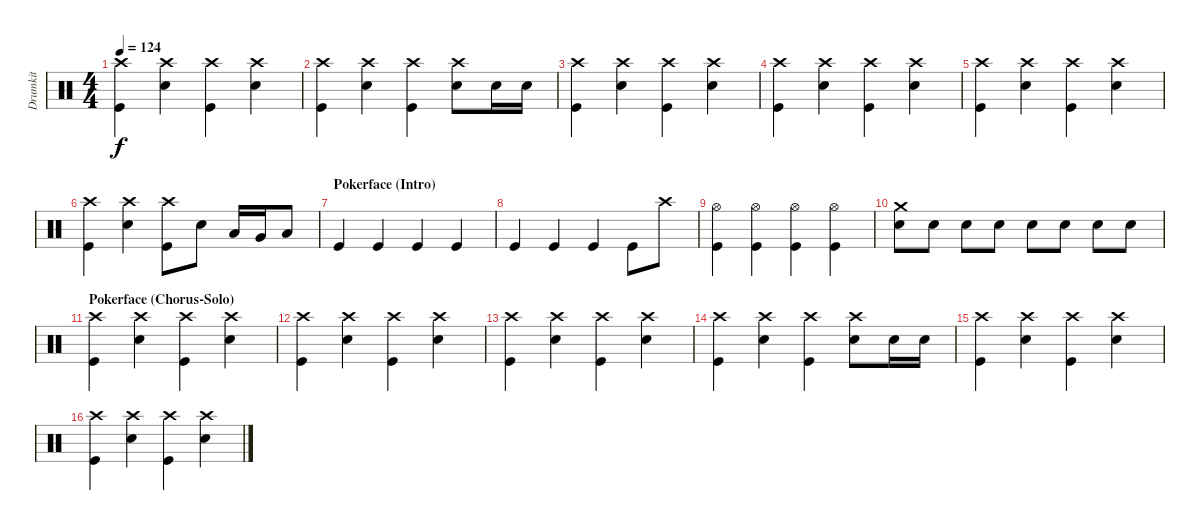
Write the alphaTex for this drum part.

\track ("Drumkit" "Drumkit") {instrument percussion}
\staff {score}
\articulation defaults
\ts (4 4)
\tempo 124
\clef neutral
\ks c
("Kick (hit)" "Crash high (hit)").4{dy f} ("Snare (hit) 2" "Crash high (hit)").4 ("Kick (hit)" "Crash high (hit)").4 ("Snare (hit) 2" "Crash high (hit)").4 |
("Kick (hit)" "Crash high (hit)").4 ("Snare (hit) 2" "Crash high (hit)").4 ("Kick (hit)" "Crash high (hit)").4 ("Snare (hit) 2" "Crash high (hit)").8 "Snare (hit) 2".16 "Snare (hit) 2".16 |
("Kick (hit)" "Crash high (hit)").4 ("Snare (hit) 2" "Crash high (hit)").4 ("Kick (hit)" "Crash high (hit)").4 ("Snare (hit) 2" "Crash high (hit)").4 |
("Kick (hit)" "Crash high (hit)").4 ("Snare (hit) 2" "Crash high (hit)").4 ("Kick (hit)" "Crash high (hit)").4 ("Snare (hit) 2" "Crash high (hit)").4 |
("Kick (hit)" "Crash high (hit)").4 ("Snare (hit) 2" "Crash high (hit)").4 ("Kick (hit)" "Crash high (hit)").4 ("Snare (hit) 2" "Crash high (hit)").4 |
("Kick (hit)" "Crash high (hit)").4 ("Snare (hit) 2" "Crash high (hit)").4 ("Kick (hit)" "Crash high (hit)").8 "Snare (hit) 2".8 "Low Tom (hit)".16 "Very Low Tom (hit)".16 "Low Floor Tom (hit)".8 |
\section ("" "Pokerface (Intro)")
"Kick (hit)".4 "Kick (hit)".4 "Kick (hit)".4 "Kick (hit)".4 |
"Kick (hit)".4 "Kick (hit)".4 "Kick (hit)".4 "Kick (hit)".8 "Crash high (hit)".8 |
("Hi-Hat (open)" "Kick (hit)").4 ("Kick (hit)" "Hi-Hat (open)").4 ("Kick (hit)" "Hi-Hat (open)").4 ("Kick (hit)" "Hi-Hat (open)").4 |
("Snare (hit) 2" "Crash medium (hit)").8 "Snare (hit) 2".8 "Snare (hit) 2".8 "Snare (hit) 2".8 "Snare (hit) 2".8 "Snare (hit) 2".8 "Snare (hit) 2".8 "Snare (hit) 2".8 |
\section ("" "Pokerface (Chorus-Solo)")
("Kick (hit)" "Crash high (hit)").4 ("Snare (hit) 2" "Crash high (hit)").4 ("Kick (hit)" "Crash high (hit)").4 ("Snare (hit) 2" "Crash high (hit)").4 |
("Kick (hit)" "Crash high (hit)").4 ("Snare (hit) 2" "Crash high (hit)").4 ("Kick (hit)" "Crash high (hit)").4 ("Snare (hit) 2" "Crash high (hit)").4 |
("Kick (hit)" "Crash high (hit)").4 ("Snare (hit) 2" "Crash high (hit)").4 ("Kick (hit)" "Crash high (hit)").4 ("Snare (hit) 2" "Crash high (hit)").4 |
("Kick (hit)" "Crash high (hit)").4 ("Snare (hit) 2" "Crash high (hit)").4 ("Kick (hit)" "Crash high (hit)").4 ("Snare (hit) 2" "Crash high (hit)").8 "Snare (hit) 2".16 "Snare (hit) 2".16 |
("Kick (hit)" "Crash high (hit)").4 ("Snare (hit) 2" "Crash high (hit)").4 ("Kick (hit)" "Crash high (hit)").4 ("Snare (hit) 2" "Crash high (hit)").4 |
("Kick (hit)" "Crash high (hit)").4 ("Snare (hit) 2" "Crash high (hit)").4 ("Kick (hit)" "Crash high (hit)").4 ("Snare (hit) 2" "Crash high (hit)").4
